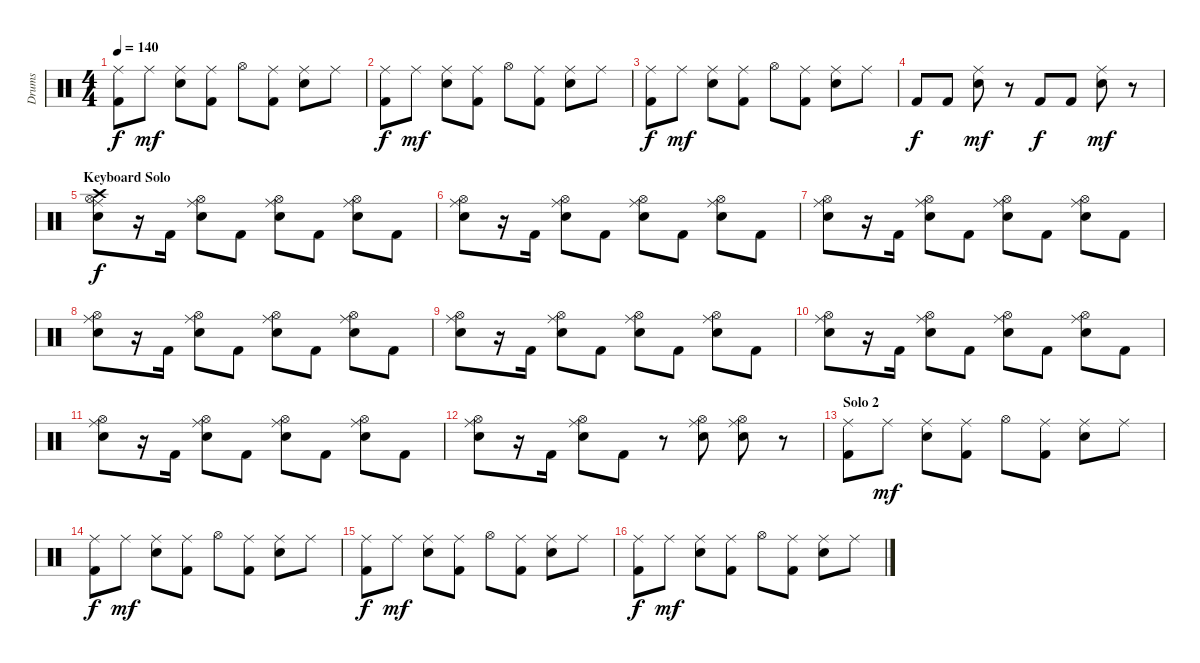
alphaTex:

\track ("Drums" "Drums") {instrument percussion}
\staff {score}
\articulation defaults
\ts (4 4)
\tempo 140
\clef neutral
\ks c
("Ride (middle)" "Kick (hit) 2").8{dy f} "Ride (middle)".8{dy mf} ("Ride (middle)" "Electric Snare (hit)").8 ("Ride (middle)" "Kick (hit) 2").8 "Hi-Hat (open)".8 ("Ride (middle)" "Kick (hit) 2").8 ("Ride (middle)" "Electric Snare (hit)").8 "Ride (middle)".8 |
("Ride (middle)" "Kick (hit) 2").8{dy f} "Ride (middle)".8{dy mf} ("Ride (middle)" "Electric Snare (hit)").8 ("Ride (middle)" "Kick (hit) 2").8 "Hi-Hat (open)".8 ("Ride (middle)" "Kick (hit) 2").8 ("Ride (middle)" "Electric Snare (hit)").8 "Ride (middle)".8 |
("Ride (middle)" "Kick (hit) 2").8{dy f} "Ride (middle)".8{dy mf} ("Ride (middle)" "Electric Snare (hit)").8 ("Ride (middle)" "Kick (hit) 2").8 "Hi-Hat (open)".8 ("Ride (middle)" "Kick (hit) 2").8 ("Ride (middle)" "Electric Snare (hit)").8 "Ride (middle)".8 |
"Kick (hit) 2".8{dy f} "Kick (hit) 2".8 ("Ride (middle)" "Electric Snare (hit)").8{dy mf} r.8 "Kick (hit) 2".8{dy f} "Kick (hit) 2".8 ("Ride (middle)" "Electric Snare (hit)").8{dy mf} r.8 |
\section ("" "Keyboard Solo")
("Crash high (hit)" "Hi-Hat (open)" "Ride (middle)" "Electric Snare (hit)").8{dy f} r.16 "Kick (hit) 2".16 ("Hi-Hat (open)" "Ride (middle)" "Electric Snare (hit)").8 "Kick (hit) 2".8 ("Hi-Hat (open)" "Ride (middle)" "Electric Snare (hit)").8 "Kick (hit) 2".8 ("Hi-Hat (open)" "Ride (middle)" "Electric Snare (hit)").8 "Kick (hit) 2".8 |
("Hi-Hat (open)" "Ride (middle)" "Electric Snare (hit)").8 r.16 "Kick (hit) 2".16 ("Hi-Hat (open)" "Ride (middle)" "Electric Snare (hit)").8 "Kick (hit) 2".8 ("Hi-Hat (open)" "Ride (middle)" "Electric Snare (hit)").8 "Kick (hit) 2".8 ("Hi-Hat (open)" "Ride (middle)" "Electric Snare (hit)").8 "Kick (hit) 2".8 |
("Hi-Hat (open)" "Ride (middle)" "Electric Snare (hit)").8 r.16 "Kick (hit) 2".16 ("Hi-Hat (open)" "Ride (middle)" "Electric Snare (hit)").8 "Kick (hit) 2".8 ("Hi-Hat (open)" "Ride (middle)" "Electric Snare (hit)").8 "Kick (hit) 2".8 ("Hi-Hat (open)" "Ride (middle)" "Electric Snare (hit)").8 "Kick (hit) 2".8 |
("Hi-Hat (open)" "Ride (middle)" "Electric Snare (hit)").8 r.16 "Kick (hit) 2".16 ("Hi-Hat (open)" "Ride (middle)" "Electric Snare (hit)").8 "Kick (hit) 2".8 ("Hi-Hat (open)" "Ride (middle)" "Electric Snare (hit)").8 "Kick (hit) 2".8 ("Hi-Hat (open)" "Ride (middle)" "Electric Snare (hit)").8 "Kick (hit) 2".8 |
("Hi-Hat (open)" "Ride (middle)" "Electric Snare (hit)").8 r.16 "Kick (hit) 2".16 ("Hi-Hat (open)" "Ride (middle)" "Electric Snare (hit)").8 "Kick (hit) 2".8 ("Hi-Hat (open)" "Ride (middle)" "Electric Snare (hit)").8 "Kick (hit) 2".8 ("Hi-Hat (open)" "Ride (middle)" "Electric Snare (hit)").8 "Kick (hit) 2".8 |
("Hi-Hat (open)" "Ride (middle)" "Electric Snare (hit)").8 r.16 "Kick (hit) 2".16 ("Hi-Hat (open)" "Ride (middle)" "Electric Snare (hit)").8 "Kick (hit) 2".8 ("Hi-Hat (open)" "Ride (middle)" "Electric Snare (hit)").8 "Kick (hit) 2".8 ("Hi-Hat (open)" "Ride (middle)" "Electric Snare (hit)").8 "Kick (hit) 2".8 |
("Hi-Hat (open)" "Ride (middle)" "Electric Snare (hit)").8 r.16 "Kick (hit) 2".16 ("Hi-Hat (open)" "Ride (middle)" "Electric Snare (hit)").8 "Kick (hit) 2".8 ("Hi-Hat (open)" "Ride (middle)" "Electric Snare (hit)").8 "Kick (hit) 2".8 ("Hi-Hat (open)" "Ride (middle)" "Electric Snare (hit)").8 "Kick (hit) 2".8 |
("Hi-Hat (open)" "Ride (middle)" "Electric Snare (hit)").8 r.16 "Kick (hit) 2".16 ("Hi-Hat (open)" "Ride (middle)" "Electric Snare (hit)").8 "Kick (hit) 2".8 r.8 ("Hi-Hat (open)" "Ride (middle)" "Electric Snare (hit)").8 ("Hi-Hat (open)" "Ride (middle)" "Electric Snare (hit)").8 r.8 |
\section ("" "Solo 2")
("Ride (middle)" "Kick (hit) 2").8 "Ride (middle)".8{dy mf} ("Ride (middle)" "Electric Snare (hit)").8 ("Ride (middle)" "Kick (hit) 2").8 "Hi-Hat (open)".8 ("Ride (middle)" "Kick (hit) 2").8 ("Ride (middle)" "Electric Snare (hit)").8 "Ride (middle)".8 |
("Ride (middle)" "Kick (hit) 2").8{dy f} "Ride (middle)".8{dy mf} ("Ride (middle)" "Electric Snare (hit)").8 ("Ride (middle)" "Kick (hit) 2").8 "Hi-Hat (open)".8 ("Ride (middle)" "Kick (hit) 2").8 ("Ride (middle)" "Electric Snare (hit)").8 "Ride (middle)".8 |
("Ride (middle)" "Kick (hit) 2").8{dy f} "Ride (middle)".8{dy mf} ("Ride (middle)" "Electric Snare (hit)").8 ("Ride (middle)" "Kick (hit) 2").8 "Hi-Hat (open)".8 ("Ride (middle)" "Kick (hit) 2").8 ("Ride (middle)" "Electric Snare (hit)").8 "Ride (middle)".8 |
("Ride (middle)" "Kick (hit) 2").8{dy f} "Ride (middle)".8{dy mf} ("Ride (middle)" "Electric Snare (hit)").8 ("Ride (middle)" "Kick (hit) 2").8 "Hi-Hat (open)".8 ("Ride (middle)" "Kick (hit) 2").8 ("Ride (middle)" "Electric Snare (hit)").8 "Ride (middle)".8
